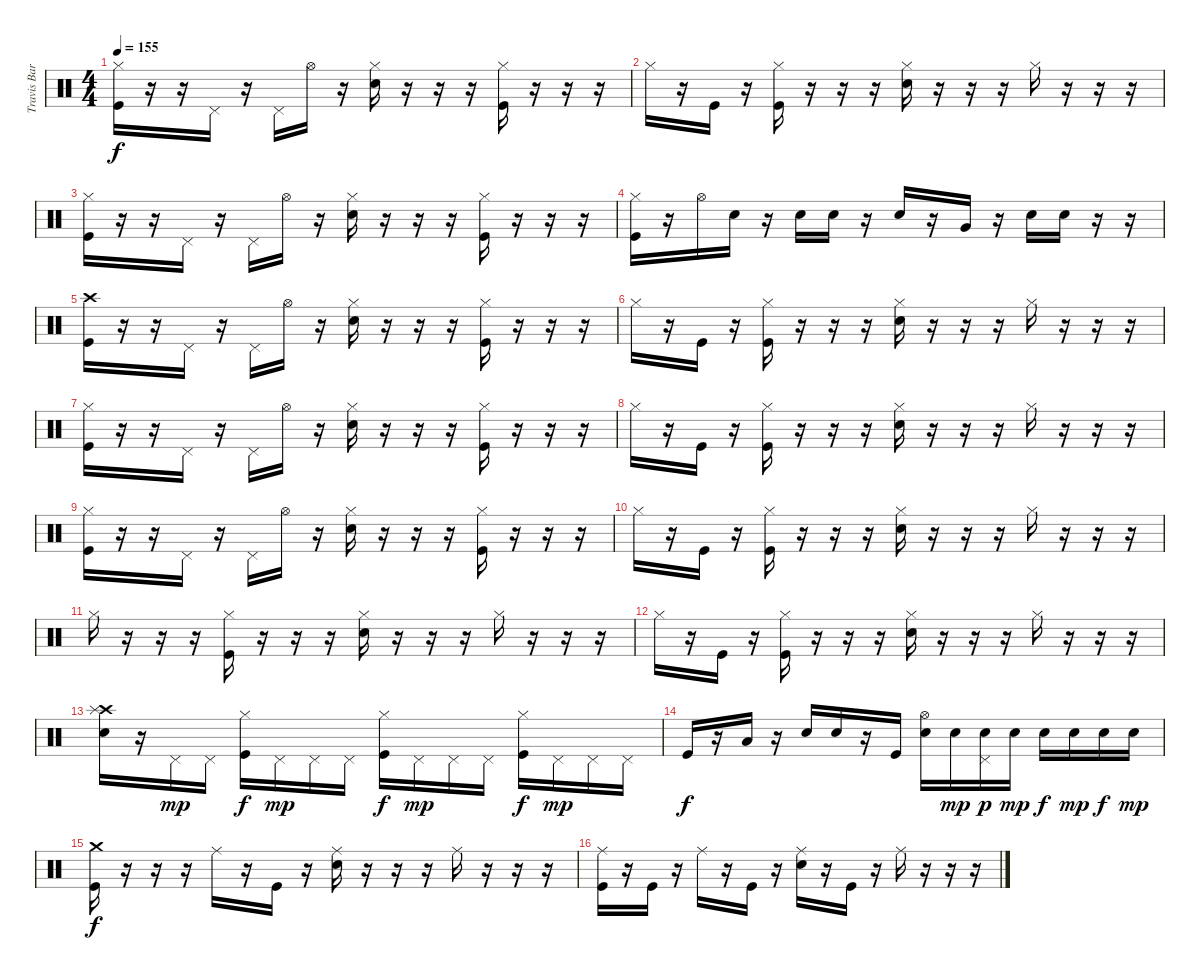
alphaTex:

\track ("Travis Barker(drums)" "Travis Bar") {instrument percussion}
\staff {score}
\articulation defaults
\ts (4 4)
\tempo 155
\clef neutral
\ks c
("Hi-Hat (closed)" "Kick (hit)").16{dy f} r.16 r.16 "Pedal Hi-Hat (hit)".16 r.16 "Pedal Hi-Hat (hit)".16 "Hi-Hat (open)".16 r.16 ("Hi-Hat (closed)" "Electric Snare (hit)").16 r.16 r.16 r.16 ("Hi-Hat (closed)" "Kick (hit)").16 r.16 r.16 r.16 |
"Hi-Hat (closed)".16 r.16 "Kick (hit)".16 r.16 ("Hi-Hat (closed)" "Kick (hit)").16 r.16 r.16 r.16 ("Hi-Hat (closed)" "Electric Snare (hit)").16 r.16 r.16 r.16 "Hi-Hat (closed)".16 r.16 r.16 r.16 |
("Hi-Hat (closed)" "Kick (hit)").16 r.16 r.16 "Pedal Hi-Hat (hit)".16 r.16 "Pedal Hi-Hat (hit)".16 "Hi-Hat (open)".16 r.16 ("Hi-Hat (closed)" "Electric Snare (hit)").16 r.16 r.16 r.16 ("Hi-Hat (closed)" "Kick (hit)").16 r.16 r.16 r.16 |
("Hi-Hat (closed)" "Kick (hit)").16 r.16 "Hi-Hat (open)".16 "Electric Snare (hit)".16 r.16 "Electric Snare (hit)".16 "Electric Snare (hit)".16 r.16 "Electric Snare (hit)".16 r.16 "Very Low Tom (hit)".16 r.16 "Electric Snare (hit)".16 "Electric Snare (hit)".16 r.16 r.16 |
("Crash high (hit)" "Kick (hit)").16 r.16 r.16 "Pedal Hi-Hat (hit)".16 r.16 "Pedal Hi-Hat (hit)".16 "Hi-Hat (open)".16 r.16 ("Hi-Hat (closed)" "Electric Snare (hit)").16 r.16 r.16 r.16 ("Hi-Hat (closed)" "Kick (hit)").16 r.16 r.16 r.16 |
"Hi-Hat (closed)".16 r.16 "Kick (hit)".16 r.16 ("Hi-Hat (closed)" "Kick (hit)").16 r.16 r.16 r.16 ("Hi-Hat (closed)" "Electric Snare (hit)").16 r.16 r.16 r.16 "Hi-Hat (closed)".16 r.16 r.16 r.16 |
("Hi-Hat (closed)" "Kick (hit)").16 r.16 r.16 "Pedal Hi-Hat (hit)".16 r.16 "Pedal Hi-Hat (hit)".16 "Hi-Hat (open)".16 r.16 ("Hi-Hat (closed)" "Electric Snare (hit)").16 r.16 r.16 r.16 ("Hi-Hat (closed)" "Kick (hit)").16 r.16 r.16 r.16 |
"Hi-Hat (closed)".16 r.16 "Kick (hit)".16 r.16 ("Hi-Hat (closed)" "Kick (hit)").16 r.16 r.16 r.16 ("Hi-Hat (closed)" "Electric Snare (hit)").16 r.16 r.16 r.16 "Hi-Hat (closed)".16 r.16 r.16 r.16 |
("Hi-Hat (closed)" "Kick (hit)").16 r.16 r.16 "Pedal Hi-Hat (hit)".16 r.16 "Pedal Hi-Hat (hit)".16 "Hi-Hat (open)".16 r.16 ("Hi-Hat (closed)" "Electric Snare (hit)").16 r.16 r.16 r.16 ("Hi-Hat (closed)" "Kick (hit)").16 r.16 r.16 r.16 |
"Hi-Hat (closed)".16 r.16 "Kick (hit)".16 r.16 ("Hi-Hat (closed)" "Kick (hit)").16 r.16 r.16 r.16 ("Hi-Hat (closed)" "Electric Snare (hit)").16 r.16 r.16 r.16 "Hi-Hat (closed)".16 r.16 r.16 r.16 |
"Hi-Hat (closed)".16 r.16 r.16 r.16 ("Hi-Hat (closed)" "Kick (hit)").16 r.16 r.16 r.16 ("Hi-Hat (closed)" "Electric Snare (hit)").16 r.16 r.16 r.16 "Hi-Hat (closed)".16 r.16 r.16 r.16 |
"Hi-Hat (closed)".16 r.16 "Kick (hit)".16 r.16 ("Hi-Hat (closed)" "Kick (hit)").16 r.16 r.16 r.16 ("Hi-Hat (closed)" "Electric Snare (hit)").16 r.16 r.16 r.16 "Hi-Hat (closed)".16 r.16 r.16 r.16 |
("Crash high (hit)" "Splash (hit)" "Electric Snare (hit)").16 r.16 "Pedal Hi-Hat (hit)".16{dy mp} "Pedal Hi-Hat (hit)".16 ("Hi-Hat (closed)" "Kick (hit)").16{dy f} "Pedal Hi-Hat (hit)".16{dy mp} "Pedal Hi-Hat (hit)".16 "Pedal Hi-Hat (hit)".16 ("Hi-Hat (closed)" "Kick (hit)").16{dy f} "Pedal Hi-Hat (hit)".16{dy mp} "Pedal Hi-Hat (hit)".16 "Pedal Hi-Hat (hit)".16 ("Hi-Hat (closed)" "Kick (hit)").16{dy f} "Pedal Hi-Hat (hit)".16{dy mp} "Pedal Hi-Hat (hit)".16 "Pedal Hi-Hat (hit)".16 |
"Kick (hit)".16{dy f} r.16 "Low Floor Tom (hit)".16 r.16 "Electric Snare (hit)".16 "Electric Snare (hit)".16 r.16 "Kick (hit)".16 ("Hi-Hat (open)" "Electric Snare (hit)").16 "Electric Snare (hit)".16{dy mp} ("Pedal Hi-Hat (hit)" "Electric Snare (hit)").16{dy p} "Electric Snare (hit)".16{dy mp} "Electric Snare (hit)".16{dy f} "Electric Snare (hit)".16{dy mp} "Electric Snare (hit)".16{dy f} "Electric Snare (hit)".16{dy mp} |
("Crash medium (hit)" "Kick (hit)").16{dy f} r.16 r.16 r.16 "Ride (middle)".16 r.16 "Kick (hit)".16 r.16 ("Ride (middle)" "Electric Snare (hit)").16 r.16 r.16 r.16 "Ride (middle)".16 r.16 r.16 r.16 |
("Ride (middle)" "Kick (hit)").16 r.16 "Kick (hit)".16 r.16 "Ride (middle)".16 r.16 "Kick (hit)".16 r.16 ("Ride (middle)" "Electric Snare (hit)").16 r.16 "Kick (hit)".16 r.16 "Ride (middle)".16 r.16 r.16 r.16
